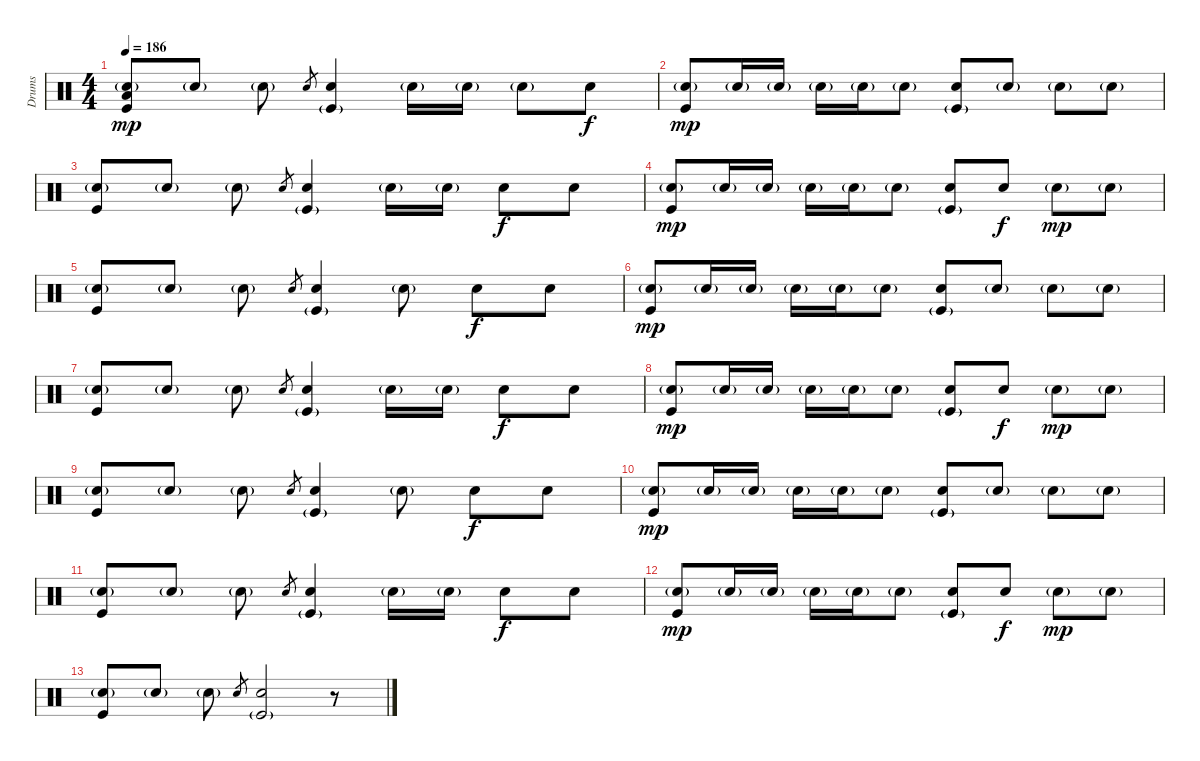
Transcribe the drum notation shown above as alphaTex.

\track ("Drums" "Drums") {instrument percussion}
\staff {score}
\articulation defaults
\ts (4 4)
\tempo 186
\clef neutral
\ks c
("Electric Snare (hit)"{g} "Low Floor Tom (hit)" "Kick (hit)").8{dy mp} "Electric Snare (hit)"{g}.8 "Electric Snare (hit)"{g}.8 "Electric Snare (hit)".8{gr} ("Electric Snare (hit)" "Kick (hit)"{g}).4 "Electric Snare (hit)"{g}.16 "Electric Snare (hit)"{g}.16 "Electric Snare (hit)"{g}.8 "Electric Snare (hit)".8{dy f} |
("Electric Snare (hit)"{g} "Kick (hit)").8{dy mp} "Electric Snare (hit)"{g}.16 "Electric Snare (hit)"{g}.16 "Electric Snare (hit)"{g}.16 "Electric Snare (hit)"{g}.16 "Electric Snare (hit)"{g}.8 ("Electric Snare (hit)" "Kick (hit)"{g}).8 "Electric Snare (hit)"{g}.8 "Electric Snare (hit)"{g}.8 "Electric Snare (hit)"{g}.8 |
("Electric Snare (hit)"{g} "Kick (hit)").8 "Electric Snare (hit)"{g}.8 "Electric Snare (hit)"{g}.8 "Electric Snare (hit)".8{gr} ("Electric Snare (hit)" "Kick (hit)"{g}).4 "Electric Snare (hit)"{g}.16 "Electric Snare (hit)"{g}.16 "Electric Snare (hit)".8{dy f} "Electric Snare (hit)".8 |
("Electric Snare (hit)"{g} "Kick (hit)").8{dy mp} "Electric Snare (hit)"{g}.16 "Electric Snare (hit)"{g}.16 "Electric Snare (hit)"{g}.16 "Electric Snare (hit)"{g}.16 "Electric Snare (hit)"{g}.8 ("Electric Snare (hit)" "Kick (hit)"{g}).8 "Electric Snare (hit)".8{dy f} "Electric Snare (hit)"{g}.8{dy mp} "Electric Snare (hit)"{g}.8 |
("Electric Snare (hit)"{g} "Kick (hit)").8 "Electric Snare (hit)"{g}.8 "Electric Snare (hit)"{g}.8 "Electric Snare (hit)".8{gr} ("Electric Snare (hit)" "Kick (hit)"{g}).4 "Electric Snare (hit)"{g}.8 "Electric Snare (hit)".8{dy f} "Electric Snare (hit)".8 |
("Electric Snare (hit)"{g} "Kick (hit)").8{dy mp} "Electric Snare (hit)"{g}.16 "Electric Snare (hit)"{g}.16 "Electric Snare (hit)"{g}.16 "Electric Snare (hit)"{g}.16 "Electric Snare (hit)"{g}.8 ("Electric Snare (hit)" "Kick (hit)"{g}).8 "Electric Snare (hit)"{g}.8 "Electric Snare (hit)"{g}.8 "Electric Snare (hit)"{g}.8 |
("Electric Snare (hit)"{g} "Kick (hit)").8 "Electric Snare (hit)"{g}.8 "Electric Snare (hit)"{g}.8 "Electric Snare (hit)".8{gr} ("Electric Snare (hit)" "Kick (hit)"{g}).4 "Electric Snare (hit)"{g}.16 "Electric Snare (hit)"{g}.16 "Electric Snare (hit)".8{dy f} "Electric Snare (hit)".8 |
("Electric Snare (hit)"{g} "Kick (hit)").8{dy mp} "Electric Snare (hit)"{g}.16 "Electric Snare (hit)"{g}.16 "Electric Snare (hit)"{g}.16 "Electric Snare (hit)"{g}.16 "Electric Snare (hit)"{g}.8 ("Electric Snare (hit)" "Kick (hit)"{g}).8 "Electric Snare (hit)".8{dy f} "Electric Snare (hit)"{g}.8{dy mp} "Electric Snare (hit)"{g}.8 |
("Electric Snare (hit)"{g} "Kick (hit)").8 "Electric Snare (hit)"{g}.8 "Electric Snare (hit)"{g}.8 "Electric Snare (hit)".8{gr} ("Electric Snare (hit)" "Kick (hit)"{g}).4 "Electric Snare (hit)"{g}.8 "Electric Snare (hit)".8{dy f} "Electric Snare (hit)".8 |
("Electric Snare (hit)"{g} "Kick (hit)").8{dy mp} "Electric Snare (hit)"{g}.16 "Electric Snare (hit)"{g}.16 "Electric Snare (hit)"{g}.16 "Electric Snare (hit)"{g}.16 "Electric Snare (hit)"{g}.8 ("Electric Snare (hit)" "Kick (hit)"{g}).8 "Electric Snare (hit)"{g}.8 "Electric Snare (hit)"{g}.8 "Electric Snare (hit)"{g}.8 |
("Electric Snare (hit)"{g} "Kick (hit)").8 "Electric Snare (hit)"{g}.8 "Electric Snare (hit)"{g}.8 "Electric Snare (hit)".8{gr} ("Electric Snare (hit)" "Kick (hit)"{g}).4 "Electric Snare (hit)"{g}.16 "Electric Snare (hit)"{g}.16 "Electric Snare (hit)".8{dy f} "Electric Snare (hit)".8 |
("Electric Snare (hit)"{g} "Kick (hit)").8{dy mp} "Electric Snare (hit)"{g}.16 "Electric Snare (hit)"{g}.16 "Electric Snare (hit)"{g}.16 "Electric Snare (hit)"{g}.16 "Electric Snare (hit)"{g}.8 ("Electric Snare (hit)" "Kick (hit)"{g}).8 "Electric Snare (hit)".8{dy f} "Electric Snare (hit)"{g}.8{dy mp} "Electric Snare (hit)"{g}.8 |
("Electric Snare (hit)"{g} "Kick (hit)").8 "Electric Snare (hit)"{g}.8 "Electric Snare (hit)"{g}.8 "Electric Snare (hit)".8{gr} ("Electric Snare (hit)" "Kick (hit)"{g}).2 r.8
